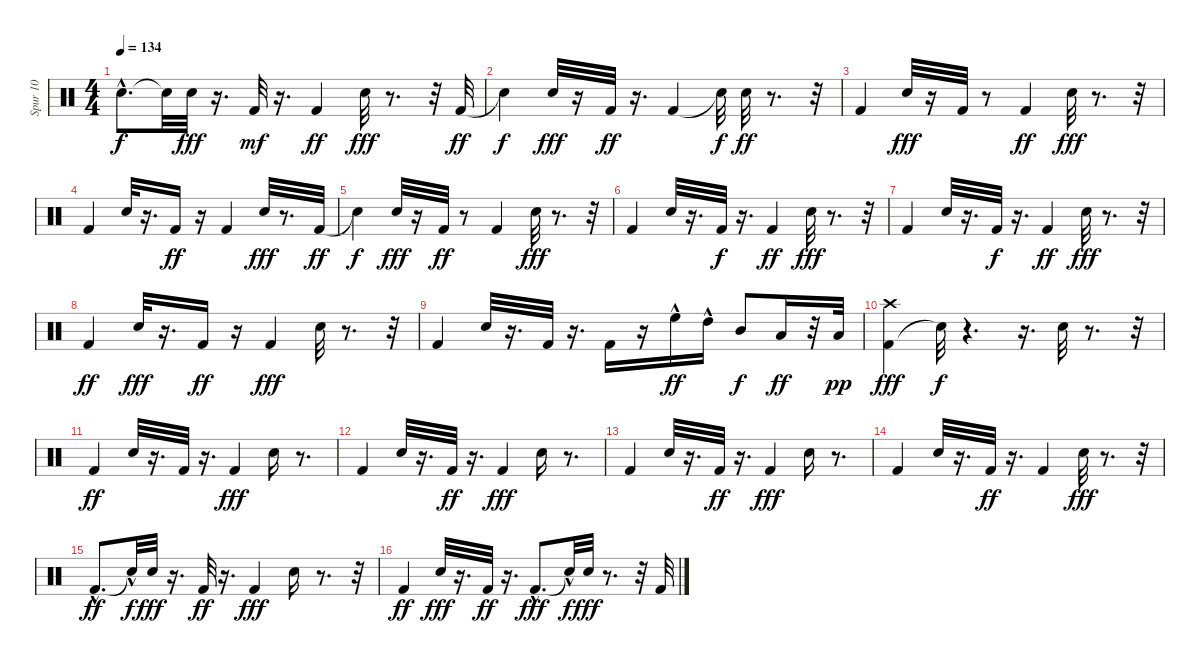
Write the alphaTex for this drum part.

\track ("Spur 10" "Spur 10") {instrument percussion}
\staff {score}
\articulation defaults
\ts (4 4)
\tempo 134
\clef neutral
\ks c "Snare (hit)"{hac t}.8{d dy f} "Snare (hit)"{t}.32 "Electric Snare (hit)".32{dy fff}
r.16{d} "Kick (hit) 2".32{dy mf} r.16{d} "Kick (hit) 2".4{dy ff} "Electric Snare (hit)".32{dy fff} r.8{d} r.32 "Kick (hit) 2".32{dy ff} |
"Snare (hit)"{t}.4{dy f} "Electric Snare (hit)".32{dy fff} r.16 "Kick (hit) 2".32{dy ff} r.16{d} "Kick (hit) 2".4 "Snare (hit)"{t}.32{dy f} "Electric Snare (hit)".32{dy ff} r.8{d} r.32 |
"Kick (hit) 2".4 "Electric Snare (hit)".32{dy fff} r.16 "Kick (hit) 2".32 r.8 "Kick (hit) 2".4{dy ff} "Electric Snare (hit)".32{dy fff} r.8{d} r.32 |
"Kick (hit) 2".4 "Electric Snare (hit)".32 r.16{d} "Kick (hit) 2".16{dy ff} r.16 "Kick (hit) 2".4 "Electric Snare (hit)".32{dy fff} r.8{d} "Kick (hit) 2".32{dy ff} |
"Snare (hit)"{t}.4{dy f} "Electric Snare (hit)".32{dy fff} r.16 "Kick (hit) 2".32{dy ff} r.8 "Kick (hit) 2".4 "Electric Snare (hit)".32{dy fff} r.8{d} r.32 |
"Kick (hit) 2".4 "Electric Snare (hit)".32 r.16{d} "Kick (hit) 2".32{dy f} r.16{d} "Kick (hit) 2".4{dy ff} "Electric Snare (hit)".32{dy fff} r.8{d} r.32 |
"Kick (hit) 2".4 "Electric Snare (hit)".32 r.16{d} "Kick (hit) 2".32{dy f} r.16{d} "Kick (hit) 2".4{dy ff} "Electric Snare (hit)".32{dy fff} r.8{d} r.32 |
"Kick (hit) 2".4{dy ff} "Electric Snare (hit)".32{dy fff} r.16{d} "Kick (hit) 2".16{dy ff} r.16 "Kick (hit) 2".4{dy fff} "Electric Snare (hit)".32 r.8{d} r.32 |
"Kick (hit) 2".4 "Electric Snare (hit)".32 r.16{d} "Kick (hit) 2".32 r.16{d} "Kick (hit) 2".16 r.16 "High Floor Tom (hit)"{hac}.16{dy ff} "High Tom (hit)"{hac}.16 "Mid Tom (hit)".8{dy f} "Low Tom (hit)".16{dy ff} r.32 "Low Tom (hit)".32{dy pp} |
("Kick (hit) 2" "Crash high (hit)").4{dy fff} "Snare (hit)"{t}.32{dy f} r.4{d} r.16{d} "Electric Snare (hit)".32 r.8{d} r.32 |
"Kick (hit) 2".4{dy ff} "Electric Snare (hit)".32 r.16{d} "Kick (hit) 2".32 r.16{d} "Kick (hit) 2".4{dy fff} "Electric Snare (hit)".16 r.8{d} |
"Kick (hit) 2".4 "Electric Snare (hit)".32 r.16{d} "Kick (hit) 2".32{dy ff} r.16{d} "Kick (hit) 2".4{dy fff} "Electric Snare (hit)".16 r.8{d} |
"Kick (hit) 2".4 "Electric Snare (hit)".32 r.16{d} "Kick (hit) 2".32{dy ff} r.16{d} "Kick (hit) 2".4{dy fff} "Electric Snare (hit)".16 r.8{d} |
"Kick (hit) 2".4 "Electric Snare (hit)".32 r.16{d} "Kick (hit) 2".32{dy ff} r.16{d} "Kick (hit) 2".4 "Electric Snare (hit)".32{dy fff} r.8{d} r.32 |
"Kick (hit) 2"{hac}.8{d dy ff} "Snare (hit)"{hac t}.32{dy f} "Electric Snare (hit)".32{dy fff} r.16{d} "Kick (hit) 2".32{dy ff} r.16{d} "Kick (hit) 2".4{dy fff} "Electric Snare (hit)".16 r.8{d} r.32 |
"Kick (hit) 2".4{dy ff} "Electric Snare (hit)".32{dy fff} r.16{d} "Kick (hit) 2".32{dy ff} r.16{d} "Kick (hit) 2"{hac}.8{d dy fff} "Snare (hit)"{hac t}.32{dy f} "Electric Snare (hit)".32{dy fff} r.8{d} r.32 "Kick (hit) 2".32
